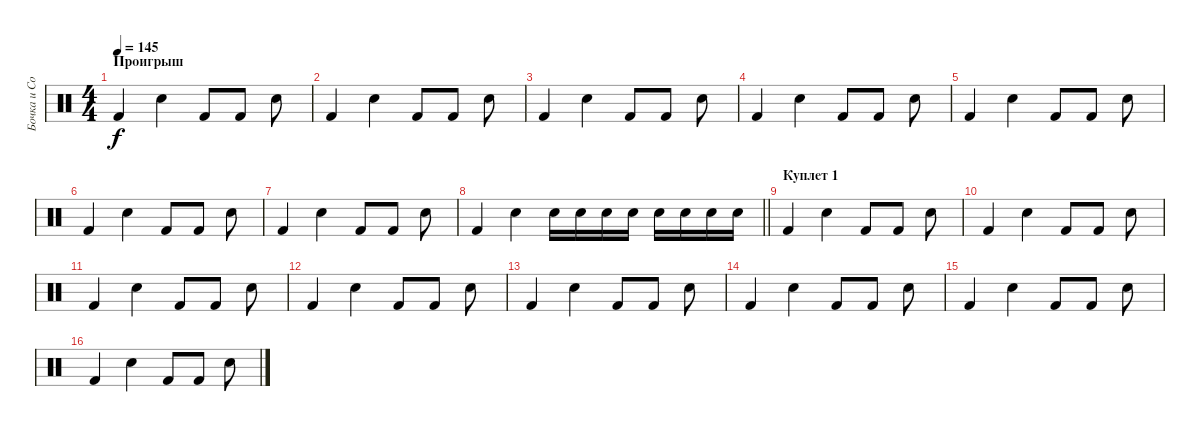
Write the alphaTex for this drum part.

\track ("Бочка и Сольник" "Бочка и Со") {instrument percussion}
\staff {score}
\articulation defaults
\ts (4 4)
\section ("" "Проигрыш")
\tempo 145
\clef neutral
\ks c "Kick (hit) 2".4{dy f} "Snare (hit) 2".4 "Kick (hit) 2".8 "Kick (hit) 2".8 "Snare (hit) 2".8
|
"Kick (hit) 2".4 "Snare (hit) 2".4 "Kick (hit) 2".8 "Kick (hit) 2".8 "Snare (hit) 2".8 |
"Kick (hit) 2".4 "Snare (hit) 2".4 "Kick (hit) 2".8 "Kick (hit) 2".8 "Snare (hit) 2".8 |
"Kick (hit) 2".4 "Snare (hit) 2".4 "Kick (hit) 2".8 "Kick (hit) 2".8 "Snare (hit) 2".8 |
"Kick (hit) 2".4 "Snare (hit) 2".4 "Kick (hit) 2".8 "Kick (hit) 2".8 "Snare (hit) 2".8 |
"Kick (hit) 2".4 "Snare (hit) 2".4 "Kick (hit) 2".8 "Kick (hit) 2".8 "Snare (hit) 2".8 |
"Kick (hit) 2".4 "Snare (hit) 2".4 "Kick (hit) 2".8 "Kick (hit) 2".8 "Snare (hit) 2".8 |
\barLineRight lightlight "Kick (hit) 2".4 "Snare (hit) 2".4 "Snare (hit) 2".16 "Snare (hit) 2".16 "Snare (hit) 2".16 "Snare (hit) 2".16 "Snare (hit) 2".16 "Snare (hit) 2".16 "Snare (hit) 2".16 "Snare (hit) 2".16
|
\section ("" "Куплет 1")
"Kick (hit) 2".4 "Snare (hit) 2".4 "Kick (hit) 2".8 "Kick (hit) 2".8 "Snare (hit) 2".8 |
"Kick (hit) 2".4 "Snare (hit) 2".4 "Kick (hit) 2".8 "Kick (hit) 2".8 "Snare (hit) 2".8 |
"Kick (hit) 2".4 "Snare (hit) 2".4 "Kick (hit) 2".8 "Kick (hit) 2".8 "Snare (hit) 2".8 |
"Kick (hit) 2".4 "Snare (hit) 2".4 "Kick (hit) 2".8 "Kick (hit) 2".8 "Snare (hit) 2".8 |
"Kick (hit) 2".4 "Snare (hit) 2".4 "Kick (hit) 2".8 "Kick (hit) 2".8 "Snare (hit) 2".8 |
"Kick (hit) 2".4 "Snare (hit) 2".4 "Kick (hit) 2".8 "Kick (hit) 2".8 "Snare (hit) 2".8 |
"Kick (hit) 2".4 "Snare (hit) 2".4 "Kick (hit) 2".8 "Kick (hit) 2".8 "Snare (hit) 2".8 |
"Kick (hit) 2".4 "Snare (hit) 2".4 "Kick (hit) 2".8 "Kick (hit) 2".8 "Snare (hit) 2".8
